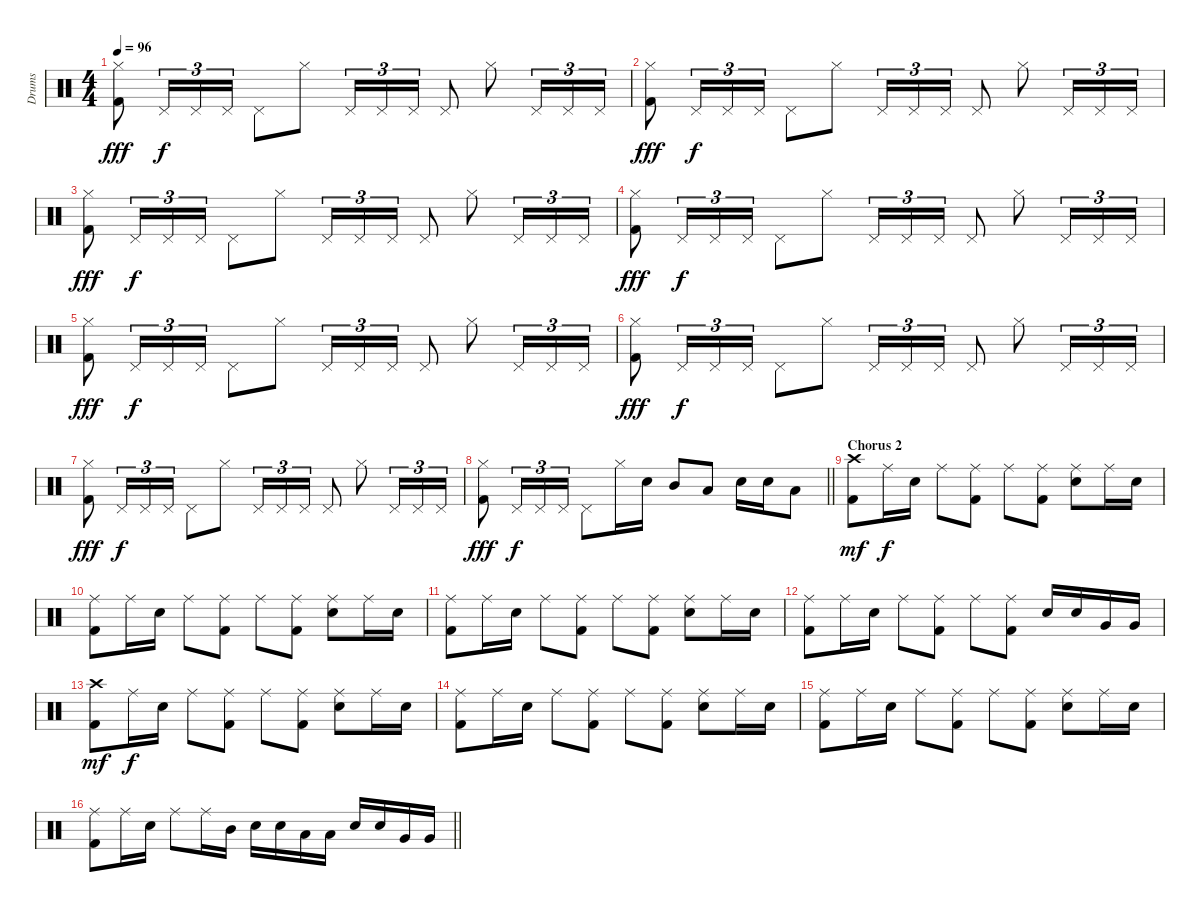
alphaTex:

\track ("Drums" "Drums") {instrument percussion}
\staff {score}
\articulation defaults
\ts (4 4)
\tempo 96
\clef neutral
\ks c
("Hi-Hat (closed)" "Kick (hit) 2").8{dy fff} "Pedal Hi-Hat (hit)".16{tu (3 2) dy f} "Pedal Hi-Hat (hit)".16{tu (3 2)} "Pedal Hi-Hat (hit)".16{tu (3 2)} "Pedal Hi-Hat (hit)".8 "Hi-Hat (closed)".8 "Pedal Hi-Hat (hit)".16{tu (3 2)} "Pedal Hi-Hat (hit)".16{tu (3 2)} "Pedal Hi-Hat (hit)".16{tu (3 2)} "Pedal Hi-Hat (hit)".8 "Hi-Hat (closed)".8 "Pedal Hi-Hat (hit)".16{tu (3 2)} "Pedal Hi-Hat (hit)".16{tu (3 2)} "Pedal Hi-Hat (hit)".16{tu (3 2)} |
("Hi-Hat (closed)" "Kick (hit) 2").8{dy fff} "Pedal Hi-Hat (hit)".16{tu (3 2) dy f} "Pedal Hi-Hat (hit)".16{tu (3 2)} "Pedal Hi-Hat (hit)".16{tu (3 2)} "Pedal Hi-Hat (hit)".8 "Hi-Hat (closed)".8 "Pedal Hi-Hat (hit)".16{tu (3 2)} "Pedal Hi-Hat (hit)".16{tu (3 2)} "Pedal Hi-Hat (hit)".16{tu (3 2)} "Pedal Hi-Hat (hit)".8 "Hi-Hat (closed)".8 "Pedal Hi-Hat (hit)".16{tu (3 2)} "Pedal Hi-Hat (hit)".16{tu (3 2)} "Pedal Hi-Hat (hit)".16{tu (3 2)} |
("Hi-Hat (closed)" "Kick (hit) 2").8{dy fff} "Pedal Hi-Hat (hit)".16{tu (3 2) dy f} "Pedal Hi-Hat (hit)".16{tu (3 2)} "Pedal Hi-Hat (hit)".16{tu (3 2)} "Pedal Hi-Hat (hit)".8 "Hi-Hat (closed)".8 "Pedal Hi-Hat (hit)".16{tu (3 2)} "Pedal Hi-Hat (hit)".16{tu (3 2)} "Pedal Hi-Hat (hit)".16{tu (3 2)} "Pedal Hi-Hat (hit)".8 "Hi-Hat (closed)".8 "Pedal Hi-Hat (hit)".16{tu (3 2)} "Pedal Hi-Hat (hit)".16{tu (3 2)} "Pedal Hi-Hat (hit)".16{tu (3 2)} |
("Hi-Hat (closed)" "Kick (hit) 2").8{dy fff} "Pedal Hi-Hat (hit)".16{tu (3 2) dy f} "Pedal Hi-Hat (hit)".16{tu (3 2)} "Pedal Hi-Hat (hit)".16{tu (3 2)} "Pedal Hi-Hat (hit)".8 "Hi-Hat (closed)".8 "Pedal Hi-Hat (hit)".16{tu (3 2)} "Pedal Hi-Hat (hit)".16{tu (3 2)} "Pedal Hi-Hat (hit)".16{tu (3 2)} "Pedal Hi-Hat (hit)".8 "Hi-Hat (closed)".8 "Pedal Hi-Hat (hit)".16{tu (3 2)} "Pedal Hi-Hat (hit)".16{tu (3 2)} "Pedal Hi-Hat (hit)".16{tu (3 2)} |
("Hi-Hat (closed)" "Kick (hit) 2").8{dy fff} "Pedal Hi-Hat (hit)".16{tu (3 2) dy f} "Pedal Hi-Hat (hit)".16{tu (3 2)} "Pedal Hi-Hat (hit)".16{tu (3 2)} "Pedal Hi-Hat (hit)".8 "Hi-Hat (closed)".8 "Pedal Hi-Hat (hit)".16{tu (3 2)} "Pedal Hi-Hat (hit)".16{tu (3 2)} "Pedal Hi-Hat (hit)".16{tu (3 2)} "Pedal Hi-Hat (hit)".8 "Hi-Hat (closed)".8 "Pedal Hi-Hat (hit)".16{tu (3 2)} "Pedal Hi-Hat (hit)".16{tu (3 2)} "Pedal Hi-Hat (hit)".16{tu (3 2)} |
("Hi-Hat (closed)" "Kick (hit) 2").8{dy fff} "Pedal Hi-Hat (hit)".16{tu (3 2) dy f} "Pedal Hi-Hat (hit)".16{tu (3 2)} "Pedal Hi-Hat (hit)".16{tu (3 2)} "Pedal Hi-Hat (hit)".8 "Hi-Hat (closed)".8 "Pedal Hi-Hat (hit)".16{tu (3 2)} "Pedal Hi-Hat (hit)".16{tu (3 2)} "Pedal Hi-Hat (hit)".16{tu (3 2)} "Pedal Hi-Hat (hit)".8 "Hi-Hat (closed)".8 "Pedal Hi-Hat (hit)".16{tu (3 2)} "Pedal Hi-Hat (hit)".16{tu (3 2)} "Pedal Hi-Hat (hit)".16{tu (3 2)} |
("Hi-Hat (closed)" "Kick (hit) 2").8{dy fff} "Pedal Hi-Hat (hit)".16{tu (3 2) dy f} "Pedal Hi-Hat (hit)".16{tu (3 2)} "Pedal Hi-Hat (hit)".16{tu (3 2)} "Pedal Hi-Hat (hit)".8 "Hi-Hat (closed)".8 "Pedal Hi-Hat (hit)".16{tu (3 2)} "Pedal Hi-Hat (hit)".16{tu (3 2)} "Pedal Hi-Hat (hit)".16{tu (3 2)} "Pedal Hi-Hat (hit)".8 "Hi-Hat (closed)".8 "Pedal Hi-Hat (hit)".16{tu (3 2)} "Pedal Hi-Hat (hit)".16{tu (3 2)} "Pedal Hi-Hat (hit)".16{tu (3 2)} |
\barLineRight lightlight
("Hi-Hat (closed)" "Kick (hit) 2").8{dy fff} "Pedal Hi-Hat (hit)".16{tu (3 2) dy f} "Pedal Hi-Hat (hit)".16{tu (3 2)} "Pedal Hi-Hat (hit)".16{tu (3 2)} "Pedal Hi-Hat (hit)".8 "Hi-Hat (closed)".16 "Snare (hit) 2".16 "Mid Tom (hit)".8 "Low Tom (hit)".8 "Snare (hit) 2".16 "Snare (hit) 2".16 "Low Tom (hit)".8 |
\section ("" "Chorus 2")
("Crash high (hit)" "Kick (hit) 2").8{dy mf} "Ride (middle)".16{dy f} "Snare (hit) 2".16 "Ride (middle)".8 ("Ride (middle)" "Kick (hit) 2").8 "Ride (middle)".8 ("Ride (middle)" "Kick (hit) 2").8 ("Ride (middle)" "Snare (hit) 2").8 "Ride (middle)".16 "Snare (hit) 2".16 |
("Ride (middle)" "Kick (hit) 2").8 "Ride (middle)".16 "Snare (hit) 2".16 "Ride (middle)".8 ("Ride (middle)" "Kick (hit) 2").8 "Ride (middle)".8 ("Ride (middle)" "Kick (hit) 2").8 ("Ride (middle)" "Snare (hit) 2").8 "Ride (middle)".16 "Snare (hit) 2".16 |
("Ride (middle)" "Kick (hit) 2").8 "Ride (middle)".16 "Snare (hit) 2".16 "Ride (middle)".8 ("Ride (middle)" "Kick (hit) 2").8 "Ride (middle)".8 ("Ride (middle)" "Kick (hit) 2").8 ("Ride (middle)" "Snare (hit) 2").8 "Ride (middle)".16 "Snare (hit) 2".16 |
("Ride (middle)" "Kick (hit) 2").8 "Ride (middle)".16 "Snare (hit) 2".16 "Ride (middle)".8 ("Ride (middle)" "Kick (hit) 2").8 "Ride (middle)".8 ("Ride (middle)" "Kick (hit) 2").8 "Snare (hit) 2".16 "Snare (hit) 2".16 "Very Low Tom (hit)".16 "Very Low Tom (hit)".16 |
("Crash high (hit)" "Kick (hit) 2").8{dy mf} "Ride (middle)".16{dy f} "Snare (hit) 2".16 "Ride (middle)".8 ("Ride (middle)" "Kick (hit) 2").8 "Ride (middle)".8 ("Ride (middle)" "Kick (hit) 2").8 ("Ride (middle)" "Snare (hit) 2").8 "Ride (middle)".16 "Snare (hit) 2".16 |
("Ride (middle)" "Kick (hit) 2").8 "Ride (middle)".16 "Snare (hit) 2".16 "Ride (middle)".8 ("Ride (middle)" "Kick (hit) 2").8 "Ride (middle)".8 ("Ride (middle)" "Kick (hit) 2").8 ("Ride (middle)" "Snare (hit) 2").8 "Ride (middle)".16 "Snare (hit) 2".16 |
("Ride (middle)" "Kick (hit) 2").8 "Ride (middle)".16 "Snare (hit) 2".16 "Ride (middle)".8 ("Ride (middle)" "Kick (hit) 2").8 "Ride (middle)".8 ("Ride (middle)" "Kick (hit) 2").8 ("Ride (middle)" "Snare (hit) 2").8 "Ride (middle)".16 "Snare (hit) 2".16 |
\barLineRight lightlight
("Ride (middle)" "Kick (hit) 2").8 "Ride (middle)".16 "Snare (hit) 2".16 "Ride (middle)".8 "Ride (middle)".16 "Mid Tom (hit)".16 "Snare (hit) 2".16 "Snare (hit) 2".16 "Low Tom (hit)".16 "Low Tom (hit)".16 "Snare (hit) 2".16 "Snare (hit) 2".16 "Very Low Tom (hit)".16 "Very Low Tom (hit)".16
